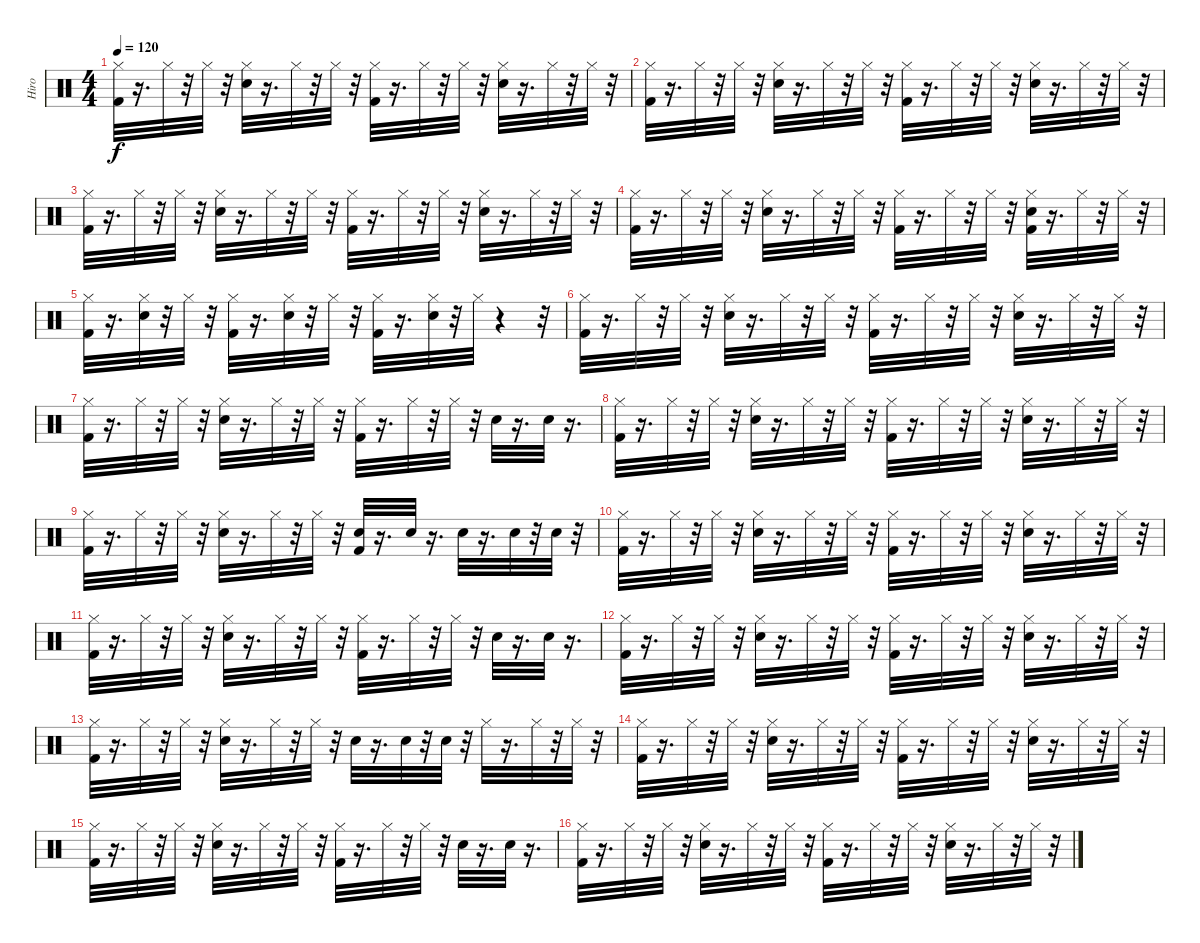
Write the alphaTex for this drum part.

\track ("Hiro" "Hiro") {instrument percussion}
\staff {score}
\articulation defaults
\ts (4 4)
\tempo 120
\clef neutral
\ks c
("Kick (hit) 2" "Hi-Hat (closed)").32{dy f} r.16{d} "Hi-Hat (closed)".32 r.32 "Hi-Hat (closed)".32 r.32 ("Hi-Hat (closed)" "Snare (hit) 2").32 r.16{d} "Hi-Hat (closed)".32 r.32 "Hi-Hat (closed)".32 r.32 ("Hi-Hat (closed)" "Kick (hit) 2").32 r.16{d} "Hi-Hat (closed)".32 r.32 "Hi-Hat (closed)".32 r.32 ("Hi-Hat (closed)" "Snare (hit) 2").32 r.16{d} "Hi-Hat (closed)".32 r.32 "Hi-Hat (closed)".32 r.32 |
("Kick (hit) 2" "Hi-Hat (closed)").32 r.16{d} "Hi-Hat (closed)".32 r.32 "Hi-Hat (closed)".32 r.32 ("Hi-Hat (closed)" "Snare (hit) 2").32 r.16{d} "Hi-Hat (closed)".32 r.32 "Hi-Hat (closed)".32 r.32 ("Hi-Hat (closed)" "Kick (hit) 2").32 r.16{d} "Hi-Hat (closed)".32 r.32 "Hi-Hat (closed)".32 r.32 ("Hi-Hat (closed)" "Snare (hit) 2").32 r.16{d} "Hi-Hat (closed)".32 r.32 "Hi-Hat (closed)".32 r.32 |
("Kick (hit) 2" "Hi-Hat (closed)").32 r.16{d} "Hi-Hat (closed)".32 r.32 "Hi-Hat (closed)".32 r.32 ("Hi-Hat (closed)" "Snare (hit) 2").32 r.16{d} "Hi-Hat (closed)".32 r.32 "Hi-Hat (closed)".32 r.32 ("Hi-Hat (closed)" "Kick (hit) 2").32 r.16{d} "Hi-Hat (closed)".32 r.32 "Hi-Hat (closed)".32 r.32 ("Hi-Hat (closed)" "Snare (hit) 2").32 r.16{d} "Hi-Hat (closed)".32 r.32 "Hi-Hat (closed)".32 r.32 |
("Kick (hit) 2" "Hi-Hat (closed)").32 r.16{d} "Hi-Hat (closed)".32 r.32 "Hi-Hat (closed)".32 r.32 ("Hi-Hat (closed)" "Snare (hit) 2").32 r.16{d} "Hi-Hat (closed)".32 r.32 "Hi-Hat (closed)".32 r.32 ("Hi-Hat (closed)" "Kick (hit) 2").32 r.16{d} "Hi-Hat (closed)".32 r.32 "Hi-Hat (closed)".32 r.32 ("Hi-Hat (closed)" "Kick (hit) 2" "Snare (hit) 2").32 r.16{d} "Hi-Hat (closed)".32 r.32 "Hi-Hat (closed)".32 r.32 |
("Hi-Hat (closed)" "Kick (hit) 2").32 r.16{d} ("Hi-Hat (closed)" "Snare (hit) 2").32 r.32 "Hi-Hat (closed)".32 r.32 ("Hi-Hat (closed)" "Kick (hit) 2").32 r.16{d} ("Hi-Hat (closed)" "Snare (hit) 2").32 r.32 "Hi-Hat (closed)".32 r.32 ("Hi-Hat (closed)" "Kick (hit) 2").32 r.16{d} ("Hi-Hat (closed)" "Snare (hit) 2").32 r.32 "Hi-Hat (closed)".32 r.4 r.32 |
("Kick (hit) 2" "Hi-Hat (closed)").32 r.16{d} "Hi-Hat (closed)".32 r.32 "Hi-Hat (closed)".32 r.32 ("Hi-Hat (closed)" "Snare (hit) 2").32 r.16{d} "Hi-Hat (closed)".32 r.32 "Hi-Hat (closed)".32 r.32 ("Kick (hit) 2" "Hi-Hat (closed)").32 r.16{d} "Hi-Hat (closed)".32 r.32 "Hi-Hat (closed)".32 r.32 ("Hi-Hat (closed)" "Snare (hit) 2").32 r.16{d} "Hi-Hat (closed)".32 r.32 "Hi-Hat (closed)".32 r.32 |
("Kick (hit) 2" "Hi-Hat (closed)").32 r.16{d} "Hi-Hat (closed)".32 r.32 "Hi-Hat (closed)".32 r.32 ("Hi-Hat (closed)" "Snare (hit) 2").32 r.16{d} "Hi-Hat (closed)".32 r.32 "Hi-Hat (closed)".32 r.32 ("Kick (hit) 2" "Hi-Hat (closed)").32 r.16{d} "Hi-Hat (closed)".32 r.32 "Hi-Hat (closed)".32 r.32 "Snare (hit) 2".32 r.16{d} "Snare (hit) 2".32 r.16{d} |
("Kick (hit) 2" "Hi-Hat (closed)").32 r.16{d} "Hi-Hat (closed)".32 r.32 "Hi-Hat (closed)".32 r.32 ("Hi-Hat (closed)" "Snare (hit) 2").32 r.16{d} "Hi-Hat (closed)".32 r.32 "Hi-Hat (closed)".32 r.32 ("Kick (hit) 2" "Hi-Hat (closed)").32 r.16{d} "Hi-Hat (closed)".32 r.32 "Hi-Hat (closed)".32 r.32 ("Hi-Hat (closed)" "Snare (hit) 2").32 r.16{d} "Hi-Hat (closed)".32 r.32 "Hi-Hat (closed)".32 r.32 |
("Kick (hit) 2" "Hi-Hat (closed)").32 r.16{d} "Hi-Hat (closed)".32 r.32 "Hi-Hat (closed)".32 r.32 ("Hi-Hat (closed)" "Snare (hit) 2").32 r.16{d} "Hi-Hat (closed)".32 r.32 "Hi-Hat (closed)".32 r.32 ("Snare (hit) 2" "Kick (hit) 2").32 r.16{d} "Snare (hit) 2".32 r.16{d} "Snare (hit) 2".32 r.16{d} "Snare (hit) 2".32 r.32 "Snare (hit) 2".32 r.32 |
("Kick (hit) 2" "Hi-Hat (closed)").32 r.16{d} "Hi-Hat (closed)".32 r.32 "Hi-Hat (closed)".32 r.32 ("Hi-Hat (closed)" "Snare (hit) 2").32 r.16{d} "Hi-Hat (closed)".32 r.32 "Hi-Hat (closed)".32 r.32 ("Kick (hit) 2" "Hi-Hat (closed)").32 r.16{d} "Hi-Hat (closed)".32 r.32 "Hi-Hat (closed)".32 r.32 ("Hi-Hat (closed)" "Snare (hit) 2").32 r.16{d} "Hi-Hat (closed)".32 r.32 "Hi-Hat (closed)".32 r.32 |
("Kick (hit) 2" "Hi-Hat (closed)").32 r.16{d} "Hi-Hat (closed)".32 r.32 "Hi-Hat (closed)".32 r.32 ("Hi-Hat (closed)" "Snare (hit) 2").32 r.16{d} "Hi-Hat (closed)".32 r.32 "Hi-Hat (closed)".32 r.32 ("Kick (hit) 2" "Hi-Hat (closed)").32 r.16{d} "Hi-Hat (closed)".32 r.32 "Hi-Hat (closed)".32 r.32 "Snare (hit) 2".32 r.16{d} "Snare (hit) 2".32 r.16{d} |
("Kick (hit) 2" "Hi-Hat (closed)").32 r.16{d} "Hi-Hat (closed)".32 r.32 "Hi-Hat (closed)".32 r.32 ("Hi-Hat (closed)" "Snare (hit) 2").32 r.16{d} "Hi-Hat (closed)".32 r.32 "Hi-Hat (closed)".32 r.32 ("Kick (hit) 2" "Hi-Hat (closed)").32 r.16{d} "Hi-Hat (closed)".32 r.32 "Hi-Hat (closed)".32 r.32 ("Hi-Hat (closed)" "Snare (hit) 2").32 r.16{d} "Hi-Hat (closed)".32 r.32 "Hi-Hat (closed)".32 r.32 |
("Kick (hit) 2" "Hi-Hat (closed)").32 r.16{d} "Hi-Hat (closed)".32 r.32 "Hi-Hat (closed)".32 r.32 ("Hi-Hat (closed)" "Snare (hit) 2").32 r.16{d} "Hi-Hat (closed)".32 r.32 "Hi-Hat (closed)".32 r.32 "Snare (hit) 2".32 r.16{d} "Snare (hit) 2".32 r.32 "Snare (hit) 2".32 r.32 "Hi-Hat (closed)".32 r.16{d} "Hi-Hat (closed)".32 r.32 "Hi-Hat (closed)".32 r.32 |
("Kick (hit) 2" "Hi-Hat (closed)").32 r.16{d} "Hi-Hat (closed)".32 r.32 "Hi-Hat (closed)".32 r.32 ("Hi-Hat (closed)" "Snare (hit) 2").32 r.16{d} "Hi-Hat (closed)".32 r.32 "Hi-Hat (closed)".32 r.32 ("Kick (hit) 2" "Hi-Hat (closed)").32 r.16{d} "Hi-Hat (closed)".32 r.32 "Hi-Hat (closed)".32 r.32 ("Hi-Hat (closed)" "Snare (hit) 2").32 r.16{d} "Hi-Hat (closed)".32 r.32 "Hi-Hat (closed)".32 r.32 |
("Kick (hit) 2" "Hi-Hat (closed)").32 r.16{d} "Hi-Hat (closed)".32 r.32 "Hi-Hat (closed)".32 r.32 ("Hi-Hat (closed)" "Snare (hit) 2").32 r.16{d} "Hi-Hat (closed)".32 r.32 "Hi-Hat (closed)".32 r.32 ("Kick (hit) 2" "Hi-Hat (closed)").32 r.16{d} "Hi-Hat (closed)".32 r.32 "Hi-Hat (closed)".32 r.32 "Snare (hit) 2".32 r.16{d} "Snare (hit) 2".32 r.16{d} |
("Kick (hit) 2" "Hi-Hat (closed)").32 r.16{d} "Hi-Hat (closed)".32 r.32 "Hi-Hat (closed)".32 r.32 ("Hi-Hat (closed)" "Snare (hit) 2").32 r.16{d} "Hi-Hat (closed)".32 r.32 "Hi-Hat (closed)".32 r.32 ("Kick (hit) 2" "Hi-Hat (closed)").32 r.16{d} "Hi-Hat (closed)".32 r.32 "Hi-Hat (closed)".32 r.32 ("Hi-Hat (closed)" "Snare (hit) 2").32 r.16{d} "Hi-Hat (closed)".32 r.32 "Hi-Hat (closed)".32 r.32
